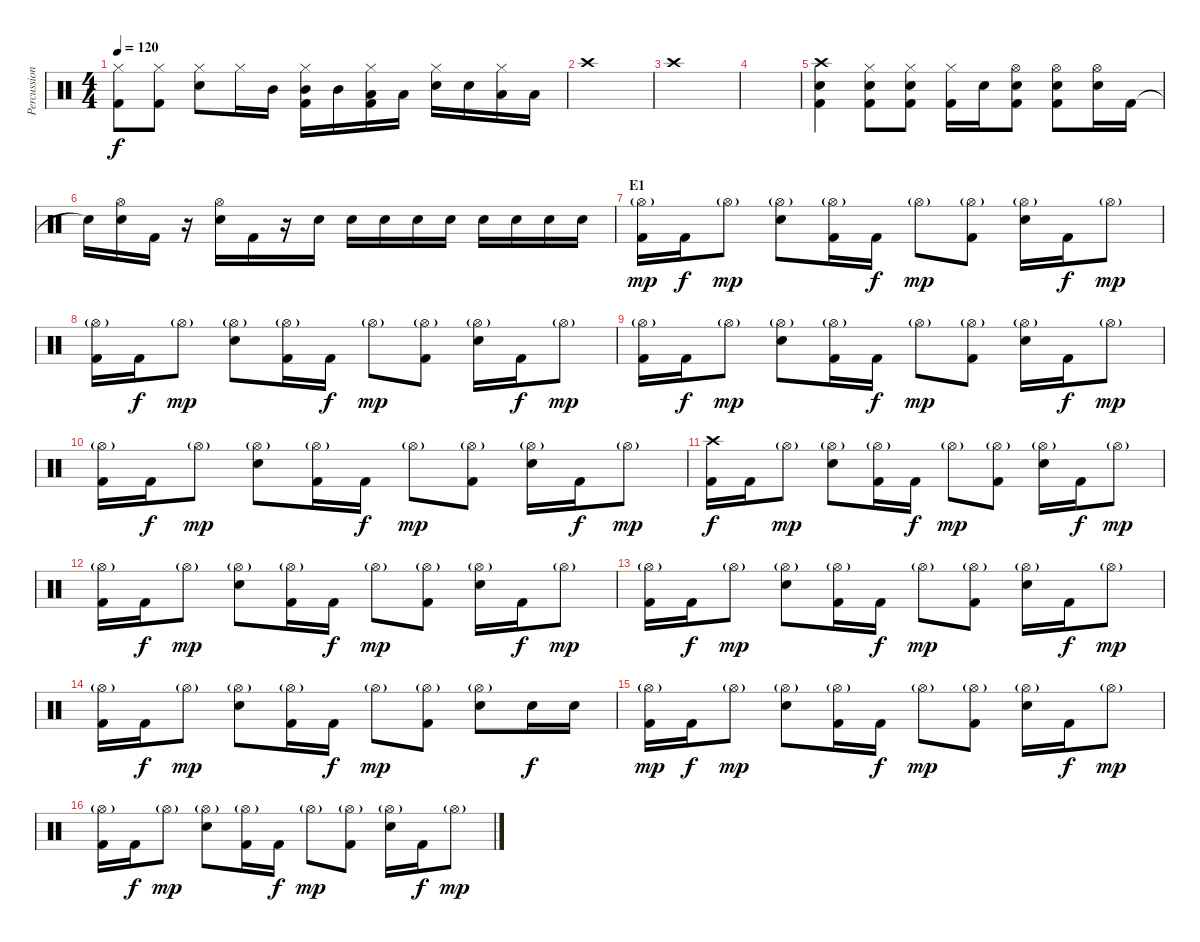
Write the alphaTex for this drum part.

\track ("Percussion" "Percussion") {instrument percussion}
\staff {score}
\articulation defaults
\ts (4 4)
\tempo 120
\clef neutral
\ks c
("Hi-Hat (closed)" "Kick (hit) 2").8{dy f} ("Hi-Hat (closed)" "Kick (hit) 2").8 ("Hi-Hat (closed)" "Snare (hit) 2").8 "Hi-Hat (closed)".16 "Mid Tom (hit)".16 ("Hi-Hat (closed)" "Mid Tom (hit)" "Kick (hit) 2").16 "Mid Tom (hit)".16 ("Hi-Hat (closed)" "Low Tom (hit)" "Kick (hit) 2").16 "Low Tom (hit)".16 ("Hi-Hat (closed)" "Snare (hit) 2").16 "Snare (hit) 2".16 ("Hi-Hat (closed)" "Low Tom (hit)").16 "Low Tom (hit)".16 |
"Crash high (hit)".1 |
"Crash high (hit)".1 |
|
("Crash high (hit)" "Kick (hit) 2" "Snare (hit) 2").4 ("Hi-Hat (closed)" "Snare (hit) 2" "Kick (hit) 2").8 ("Hi-Hat (closed)" "Snare (hit) 2" "Kick (hit) 2").8 ("Hi-Hat (closed)" "Kick (hit) 2").16 "Snare (hit) 2".16 ("Hi-Hat (open)" "Snare (hit) 2" "Kick (hit) 2").8 ("Hi-Hat (open)" "Snare (hit) 2" "Kick (hit) 2").8 ("Hi-Hat (open)" "Snare (hit) 2").16 "Kick (hit) 2".16 |
"Snare (hit)"{t}.16 ("Hi-Hat (open)" "Snare (hit) 2").16 "Kick (hit) 2".16 r.16 ("Hi-Hat (open)" "Snare (hit) 2").16 "Kick (hit) 2".16 r.16 "Snare (hit) 2".16 "Snare (hit) 2".16 "Snare (hit) 2".16 "Snare (hit) 2".16 "Snare (hit) 2".16 "Snare (hit) 2".16 "Snare (hit) 2".16 "Snare (hit) 2".16 "Snare (hit) 2".16 |
\section ("" "E1")
("Hi-Hat (open)"{g} "Kick (hit) 2").16{dy mp} "Kick (hit) 2".16{dy f} "Hi-Hat (open)"{g}.8{dy mp} ("Hi-Hat (open)"{g} "Snare (hit) 2").8 ("Hi-Hat (open)"{g} "Kick (hit) 2").16 "Kick (hit) 2".16{dy f} "Hi-Hat (open)"{g}.8{dy mp} ("Hi-Hat (open)"{g} "Kick (hit) 2").8 ("Hi-Hat (open)"{g} "Snare (hit) 2").16 "Kick (hit) 2".16{dy f} "Hi-Hat (open)"{g}.8{dy mp} |
("Hi-Hat (open)"{g} "Kick (hit) 2").16 "Kick (hit) 2".16{dy f} "Hi-Hat (open)"{g}.8{dy mp} ("Hi-Hat (open)"{g} "Snare (hit) 2").8 ("Hi-Hat (open)"{g} "Kick (hit) 2").16 "Kick (hit) 2".16{dy f} "Hi-Hat (open)"{g}.8{dy mp} ("Hi-Hat (open)"{g} "Kick (hit) 2").8 ("Hi-Hat (open)"{g} "Snare (hit) 2").16 "Kick (hit) 2".16{dy f} "Hi-Hat (open)"{g}.8{dy mp} |
("Hi-Hat (open)"{g} "Kick (hit) 2").16 "Kick (hit) 2".16{dy f} "Hi-Hat (open)"{g}.8{dy mp} ("Hi-Hat (open)"{g} "Snare (hit) 2").8 ("Hi-Hat (open)"{g} "Kick (hit) 2").16 "Kick (hit) 2".16{dy f} "Hi-Hat (open)"{g}.8{dy mp} ("Hi-Hat (open)"{g} "Kick (hit) 2").8 ("Hi-Hat (open)"{g} "Snare (hit) 2").16 "Kick (hit) 2".16{dy f} "Hi-Hat (open)"{g}.8{dy mp} |
("Hi-Hat (open)"{g} "Kick (hit) 2").16 "Kick (hit) 2".16{dy f} "Hi-Hat (open)"{g}.8{dy mp} ("Hi-Hat (open)"{g} "Snare (hit) 2").8 ("Hi-Hat (open)"{g} "Kick (hit) 2").16 "Kick (hit) 2".16{dy f} "Hi-Hat (open)"{g}.8{dy mp} ("Hi-Hat (open)"{g} "Kick (hit) 2").8 ("Hi-Hat (open)"{g} "Snare (hit) 2").16 "Kick (hit) 2".16{dy f} "Hi-Hat (open)"{g}.8{dy mp} |
("Crash high (hit)" "Kick (hit) 2").16{dy f} "Kick (hit) 2".16 "Hi-Hat (open)"{g}.8{dy mp} ("Hi-Hat (open)"{g} "Snare (hit) 2").8 ("Hi-Hat (open)"{g} "Kick (hit) 2").16 "Kick (hit) 2".16{dy f} "Hi-Hat (open)"{g}.8{dy mp} ("Hi-Hat (open)"{g} "Kick (hit) 2").8 ("Hi-Hat (open)"{g} "Snare (hit) 2").16 "Kick (hit) 2".16{dy f} "Hi-Hat (open)"{g}.8{dy mp} |
("Hi-Hat (open)"{g} "Kick (hit) 2").16 "Kick (hit) 2".16{dy f} "Hi-Hat (open)"{g}.8{dy mp} ("Hi-Hat (open)"{g} "Snare (hit) 2").8 ("Hi-Hat (open)"{g} "Kick (hit) 2").16 "Kick (hit) 2".16{dy f} "Hi-Hat (open)"{g}.8{dy mp} ("Hi-Hat (open)"{g} "Kick (hit) 2").8 ("Hi-Hat (open)"{g} "Snare (hit) 2").16 "Kick (hit) 2".16{dy f} "Hi-Hat (open)"{g}.8{dy mp} |
("Hi-Hat (open)"{g} "Kick (hit) 2").16 "Kick (hit) 2".16{dy f} "Hi-Hat (open)"{g}.8{dy mp} ("Hi-Hat (open)"{g} "Snare (hit) 2").8 ("Hi-Hat (open)"{g} "Kick (hit) 2").16 "Kick (hit) 2".16{dy f} "Hi-Hat (open)"{g}.8{dy mp} ("Hi-Hat (open)"{g} "Kick (hit) 2").8 ("Hi-Hat (open)"{g} "Snare (hit) 2").16 "Kick (hit) 2".16{dy f} "Hi-Hat (open)"{g}.8{dy mp} |
("Hi-Hat (open)"{g} "Kick (hit) 2").16 "Kick (hit) 2".16{dy f} "Hi-Hat (open)"{g}.8{dy mp} ("Hi-Hat (open)"{g} "Snare (hit) 2").8 ("Hi-Hat (open)"{g} "Kick (hit) 2").16 "Kick (hit) 2".16{dy f} "Hi-Hat (open)"{g}.8{dy mp} ("Hi-Hat (open)"{g} "Kick (hit) 2").8 ("Hi-Hat (open)"{g} "Snare (hit) 2").8 "Snare (hit) 2".16{dy f} "Snare (hit) 2".16 |
("Hi-Hat (open)"{g} "Kick (hit) 2").16{dy mp} "Kick (hit) 2".16{dy f} "Hi-Hat (open)"{g}.8{dy mp} ("Hi-Hat (open)"{g} "Snare (hit) 2").8 ("Hi-Hat (open)"{g} "Kick (hit) 2").16 "Kick (hit) 2".16{dy f} "Hi-Hat (open)"{g}.8{dy mp} ("Hi-Hat (open)"{g} "Kick (hit) 2").8 ("Hi-Hat (open)"{g} "Snare (hit) 2").16 "Kick (hit) 2".16{dy f} "Hi-Hat (open)"{g}.8{dy mp} |
("Hi-Hat (open)"{g} "Kick (hit) 2").16 "Kick (hit) 2".16{dy f} "Hi-Hat (open)"{g}.8{dy mp} ("Hi-Hat (open)"{g} "Snare (hit) 2").8 ("Hi-Hat (open)"{g} "Kick (hit) 2").16 "Kick (hit) 2".16{dy f} "Hi-Hat (open)"{g}.8{dy mp} ("Hi-Hat (open)"{g} "Kick (hit) 2").8 ("Hi-Hat (open)"{g} "Snare (hit) 2").16 "Kick (hit) 2".16{dy f} "Hi-Hat (open)"{g}.8{dy mp}
